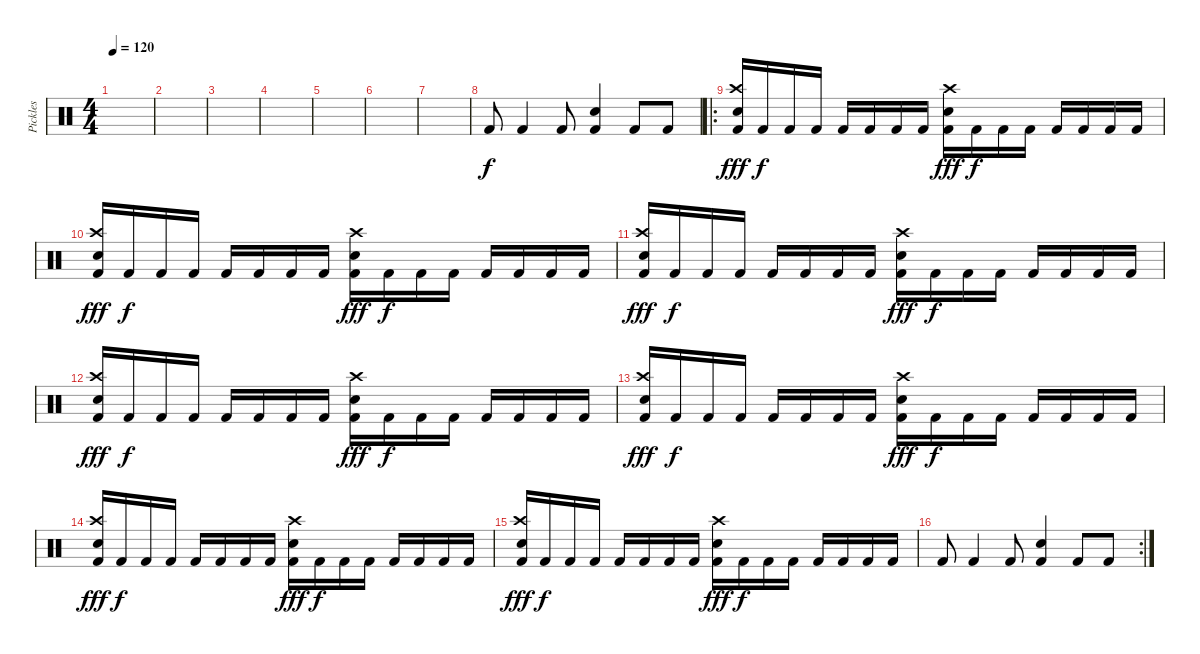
\track ("Pickles" "Pickles") {instrument percussion}
\staff {score}
\articulation defaults
\ts (4 4)
\tempo 120
\clef neutral
\ks c
|
|
|
|
|
|
|
"Kick (hit) 2".8{dy f} "Kick (hit) 2".4 "Kick (hit) 2".8 ("Electric Snare (hit)" "Kick (hit) 2").4 "Kick (hit) 2".8 "Kick (hit) 2".8 |
\ro
("Crash high (hit)" "Snare (hit) 2" "Kick (hit) 2").16{dy fff} "Kick (hit) 2".16{dy f} "Kick (hit) 2".16 "Kick (hit) 2".16 "Kick (hit) 2".16 "Kick (hit) 2".16 "Kick (hit) 2".16 "Kick (hit) 2".16 ("Crash high (hit)" "Electric Snare (hit)" "Kick (hit) 2").16{dy fff} "Kick (hit) 2".16{dy f} "Kick (hit) 2".16 "Kick (hit) 2".16 "Kick (hit) 2".16 "Kick (hit) 2".16 "Kick (hit) 2".16 "Kick (hit) 2".16 |
("Crash high (hit)" "Snare (hit) 2" "Kick (hit) 2").16{dy fff} "Kick (hit) 2".16{dy f} "Kick (hit) 2".16 "Kick (hit) 2".16 "Kick (hit) 2".16 "Kick (hit) 2".16 "Kick (hit) 2".16 "Kick (hit) 2".16 ("Crash high (hit)" "Electric Snare (hit)" "Kick (hit) 2").16{dy fff} "Kick (hit) 2".16{dy f} "Kick (hit) 2".16 "Kick (hit) 2".16 "Kick (hit) 2".16 "Kick (hit) 2".16 "Kick (hit) 2".16 "Kick (hit) 2".16 |
("Crash high (hit)" "Snare (hit) 2" "Kick (hit) 2").16{dy fff} "Kick (hit) 2".16{dy f} "Kick (hit) 2".16 "Kick (hit) 2".16 "Kick (hit) 2".16 "Kick (hit) 2".16 "Kick (hit) 2".16 "Kick (hit) 2".16 ("Crash high (hit)" "Electric Snare (hit)" "Kick (hit) 2").16{dy fff} "Kick (hit) 2".16{dy f} "Kick (hit) 2".16 "Kick (hit) 2".16 "Kick (hit) 2".16 "Kick (hit) 2".16 "Kick (hit) 2".16 "Kick (hit) 2".16 |
("Crash high (hit)" "Snare (hit) 2" "Kick (hit) 2").16{dy fff} "Kick (hit) 2".16{dy f} "Kick (hit) 2".16 "Kick (hit) 2".16 "Kick (hit) 2".16 "Kick (hit) 2".16 "Kick (hit) 2".16 "Kick (hit) 2".16 ("Crash high (hit)" "Electric Snare (hit)" "Kick (hit) 2").16{dy fff} "Kick (hit) 2".16{dy f} "Kick (hit) 2".16 "Kick (hit) 2".16 "Kick (hit) 2".16 "Kick (hit) 2".16 "Kick (hit) 2".16 "Kick (hit) 2".16 |
("Crash high (hit)" "Snare (hit) 2" "Kick (hit) 2").16{dy fff} "Kick (hit) 2".16{dy f} "Kick (hit) 2".16 "Kick (hit) 2".16 "Kick (hit) 2".16 "Kick (hit) 2".16 "Kick (hit) 2".16 "Kick (hit) 2".16 ("Crash high (hit)" "Electric Snare (hit)" "Kick (hit) 2").16{dy fff} "Kick (hit) 2".16{dy f} "Kick (hit) 2".16 "Kick (hit) 2".16 "Kick (hit) 2".16 "Kick (hit) 2".16 "Kick (hit) 2".16 "Kick (hit) 2".16 |
("Crash high (hit)" "Snare (hit) 2" "Kick (hit) 2").16{dy fff} "Kick (hit) 2".16{dy f} "Kick (hit) 2".16 "Kick (hit) 2".16 "Kick (hit) 2".16 "Kick (hit) 2".16 "Kick (hit) 2".16 "Kick (hit) 2".16 ("Crash high (hit)" "Electric Snare (hit)" "Kick (hit) 2").16{dy fff} "Kick (hit) 2".16{dy f} "Kick (hit) 2".16 "Kick (hit) 2".16 "Kick (hit) 2".16 "Kick (hit) 2".16 "Kick (hit) 2".16 "Kick (hit) 2".16 |
("Crash high (hit)" "Snare (hit) 2" "Kick (hit) 2").16{dy fff} "Kick (hit) 2".16{dy f} "Kick (hit) 2".16 "Kick (hit) 2".16 "Kick (hit) 2".16 "Kick (hit) 2".16 "Kick (hit) 2".16 "Kick (hit) 2".16 ("Crash high (hit)" "Electric Snare (hit)" "Kick (hit) 2").16{dy fff} "Kick (hit) 2".16{dy f} "Kick (hit) 2".16 "Kick (hit) 2".16 "Kick (hit) 2".16 "Kick (hit) 2".16 "Kick (hit) 2".16 "Kick (hit) 2".16 |
\rc 2 "Kick (hit) 2".8 "Kick (hit) 2".4 "Kick (hit) 2".8
("Electric Snare (hit)" "Kick (hit) 2").4 "Kick (hit) 2".8 "Kick (hit) 2".8
